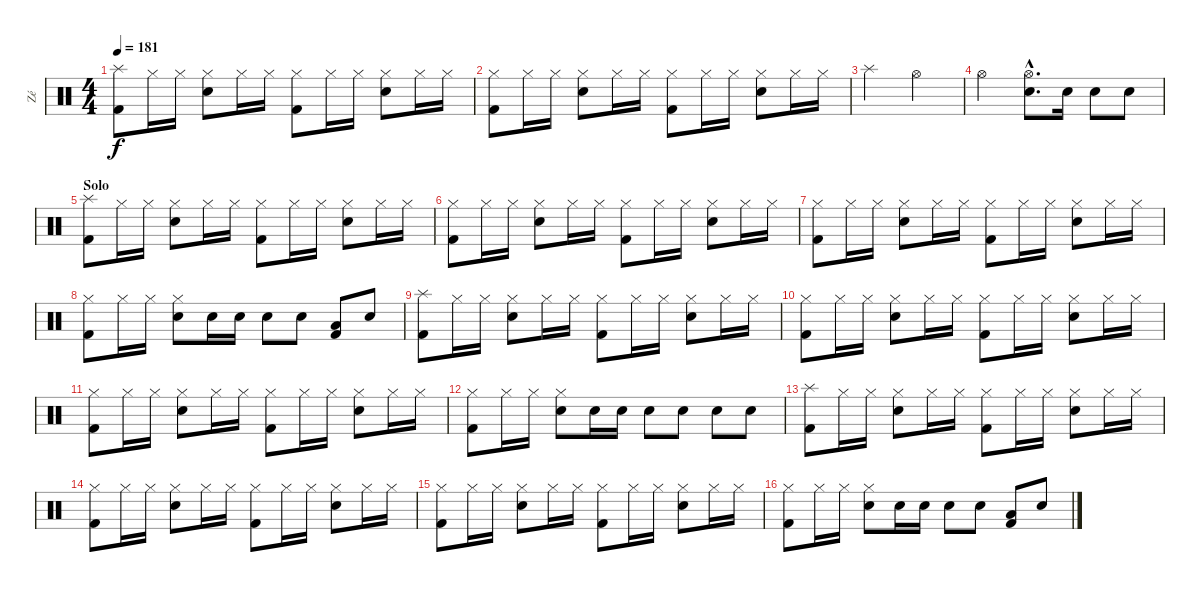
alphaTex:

\track ("Zé" "Zé") {instrument percussion}
\staff {score}
\articulation defaults
\ts (4 4)
\tempo 181
\clef neutral
\ks c
("Splash (hit)" "Kick (hit) 2").8{dy f} "Hi-Hat (closed)".16 "Hi-Hat (closed)".16 ("Hi-Hat (closed)" "Snare (hit) 2").8 "Hi-Hat (closed)".16 "Hi-Hat (closed)".16 ("Hi-Hat (closed)" "Kick (hit) 2").8 "Hi-Hat (closed)".16 "Hi-Hat (closed)".16 ("Hi-Hat (closed)" "Snare (hit) 2").8 "Hi-Hat (closed)".16 "Hi-Hat (closed)".16 |
("Hi-Hat (closed)" "Kick (hit) 2").8 "Hi-Hat (closed)".16 "Hi-Hat (closed)".16 ("Hi-Hat (closed)" "Snare (hit) 2").8 "Hi-Hat (closed)".16 "Hi-Hat (closed)".16 ("Hi-Hat (closed)" "Kick (hit) 2").8 "Hi-Hat (closed)".16 "Hi-Hat (closed)".16 ("Hi-Hat (closed)" "Snare (hit) 2").8 "Hi-Hat (closed)".16 "Hi-Hat (closed)".16 |
"Splash (hit)".2 "Hi-Hat (open)".2 |
"Hi-Hat (open)".2 ("Hi-Hat (open)"{hac} "Snare (hit) 2"{hac}).8{d} "Snare (hit) 2".16 "Snare (hit) 2".8 "Snare (hit) 2".8 |
\section ("" "Solo")
("Splash (hit)" "Kick (hit) 2").8 "Hi-Hat (closed)".16 "Hi-Hat (closed)".16 ("Hi-Hat (closed)" "Snare (hit) 2").8 "Hi-Hat (closed)".16 "Hi-Hat (closed)".16 ("Hi-Hat (closed)" "Kick (hit) 2").8 "Hi-Hat (closed)".16 "Hi-Hat (closed)".16 ("Hi-Hat (closed)" "Snare (hit) 2").8 "Hi-Hat (closed)".16 "Hi-Hat (closed)".16 |
("Hi-Hat (closed)" "Kick (hit) 2").8 "Hi-Hat (closed)".16 "Hi-Hat (closed)".16 ("Hi-Hat (closed)" "Snare (hit) 2").8 "Hi-Hat (closed)".16 "Hi-Hat (closed)".16 ("Hi-Hat (closed)" "Kick (hit) 2").8 "Hi-Hat (closed)".16 "Hi-Hat (closed)".16 ("Hi-Hat (closed)" "Snare (hit) 2").8 "Hi-Hat (closed)".16 "Hi-Hat (closed)".16 |
("Hi-Hat (closed)" "Kick (hit) 2").8 "Hi-Hat (closed)".16 "Hi-Hat (closed)".16 ("Hi-Hat (closed)" "Snare (hit) 2").8 "Hi-Hat (closed)".16 "Hi-Hat (closed)".16 ("Hi-Hat (closed)" "Kick (hit) 2").8 "Hi-Hat (closed)".16 "Hi-Hat (closed)".16 ("Hi-Hat (closed)" "Snare (hit) 2").8 "Hi-Hat (closed)".16 "Hi-Hat (closed)".16 |
("Hi-Hat (closed)" "Kick (hit) 2").8 "Hi-Hat (closed)".16 "Hi-Hat (closed)".16 ("Hi-Hat (closed)" "Snare (hit) 2").8 "Snare (hit) 2".16 "Snare (hit) 2".16 "Snare (hit) 2".8 "Snare (hit) 2".8 ("Low Tom (hit)" "Kick (hit) 2").8 "Snare (hit) 2".8 |
("Splash (hit)" "Kick (hit) 2").8 "Hi-Hat (closed)".16 "Hi-Hat (closed)".16 ("Hi-Hat (closed)" "Snare (hit) 2").8 "Hi-Hat (closed)".16 "Hi-Hat (closed)".16 ("Hi-Hat (closed)" "Kick (hit) 2").8 "Hi-Hat (closed)".16 "Hi-Hat (closed)".16 ("Hi-Hat (closed)" "Snare (hit) 2").8 "Hi-Hat (closed)".16 "Hi-Hat (closed)".16 |
("Hi-Hat (closed)" "Kick (hit) 2").8 "Hi-Hat (closed)".16 "Hi-Hat (closed)".16 ("Hi-Hat (closed)" "Snare (hit) 2").8 "Hi-Hat (closed)".16 "Hi-Hat (closed)".16 ("Hi-Hat (closed)" "Kick (hit) 2").8 "Hi-Hat (closed)".16 "Hi-Hat (closed)".16 ("Hi-Hat (closed)" "Snare (hit) 2").8 "Hi-Hat (closed)".16 "Hi-Hat (closed)".16 |
("Hi-Hat (closed)" "Kick (hit) 2").8 "Hi-Hat (closed)".16 "Hi-Hat (closed)".16 ("Hi-Hat (closed)" "Snare (hit) 2").8 "Hi-Hat (closed)".16 "Hi-Hat (closed)".16 ("Hi-Hat (closed)" "Kick (hit) 2").8 "Hi-Hat (closed)".16 "Hi-Hat (closed)".16 ("Hi-Hat (closed)" "Snare (hit) 2").8 "Hi-Hat (closed)".16 "Hi-Hat (closed)".16 |
("Hi-Hat (closed)" "Kick (hit) 2").8 "Hi-Hat (closed)".16 "Hi-Hat (closed)".16 ("Hi-Hat (closed)" "Snare (hit) 2").8 "Snare (hit) 2".16 "Snare (hit) 2".16 "Snare (hit) 2".8 "Snare (hit) 2".8 "Snare (hit) 2".8 "Snare (hit) 2".8 |
("Splash (hit)" "Kick (hit) 2").8 "Hi-Hat (closed)".16 "Hi-Hat (closed)".16 ("Hi-Hat (closed)" "Snare (hit) 2").8 "Hi-Hat (closed)".16 "Hi-Hat (closed)".16 ("Hi-Hat (closed)" "Kick (hit) 2").8 "Hi-Hat (closed)".16 "Hi-Hat (closed)".16 ("Hi-Hat (closed)" "Snare (hit) 2").8 "Hi-Hat (closed)".16 "Hi-Hat (closed)".16 |
("Hi-Hat (closed)" "Kick (hit) 2").8 "Hi-Hat (closed)".16 "Hi-Hat (closed)".16 ("Hi-Hat (closed)" "Snare (hit) 2").8 "Hi-Hat (closed)".16 "Hi-Hat (closed)".16 ("Hi-Hat (closed)" "Kick (hit) 2").8 "Hi-Hat (closed)".16 "Hi-Hat (closed)".16 ("Hi-Hat (closed)" "Snare (hit) 2").8 "Hi-Hat (closed)".16 "Hi-Hat (closed)".16 |
("Hi-Hat (closed)" "Kick (hit) 2").8 "Hi-Hat (closed)".16 "Hi-Hat (closed)".16 ("Hi-Hat (closed)" "Snare (hit) 2").8 "Hi-Hat (closed)".16 "Hi-Hat (closed)".16 ("Hi-Hat (closed)" "Kick (hit) 2").8 "Hi-Hat (closed)".16 "Hi-Hat (closed)".16 ("Hi-Hat (closed)" "Snare (hit) 2").8 "Hi-Hat (closed)".16 "Hi-Hat (closed)".16 |
("Hi-Hat (closed)" "Kick (hit) 2").8 "Hi-Hat (closed)".16 "Hi-Hat (closed)".16 ("Hi-Hat (closed)" "Snare (hit) 2").8 "Snare (hit) 2".16 "Snare (hit) 2".16 "Snare (hit) 2".8 "Snare (hit) 2".8 ("Low Tom (hit)" "Kick (hit) 2").8 "Snare (hit) 2".8
